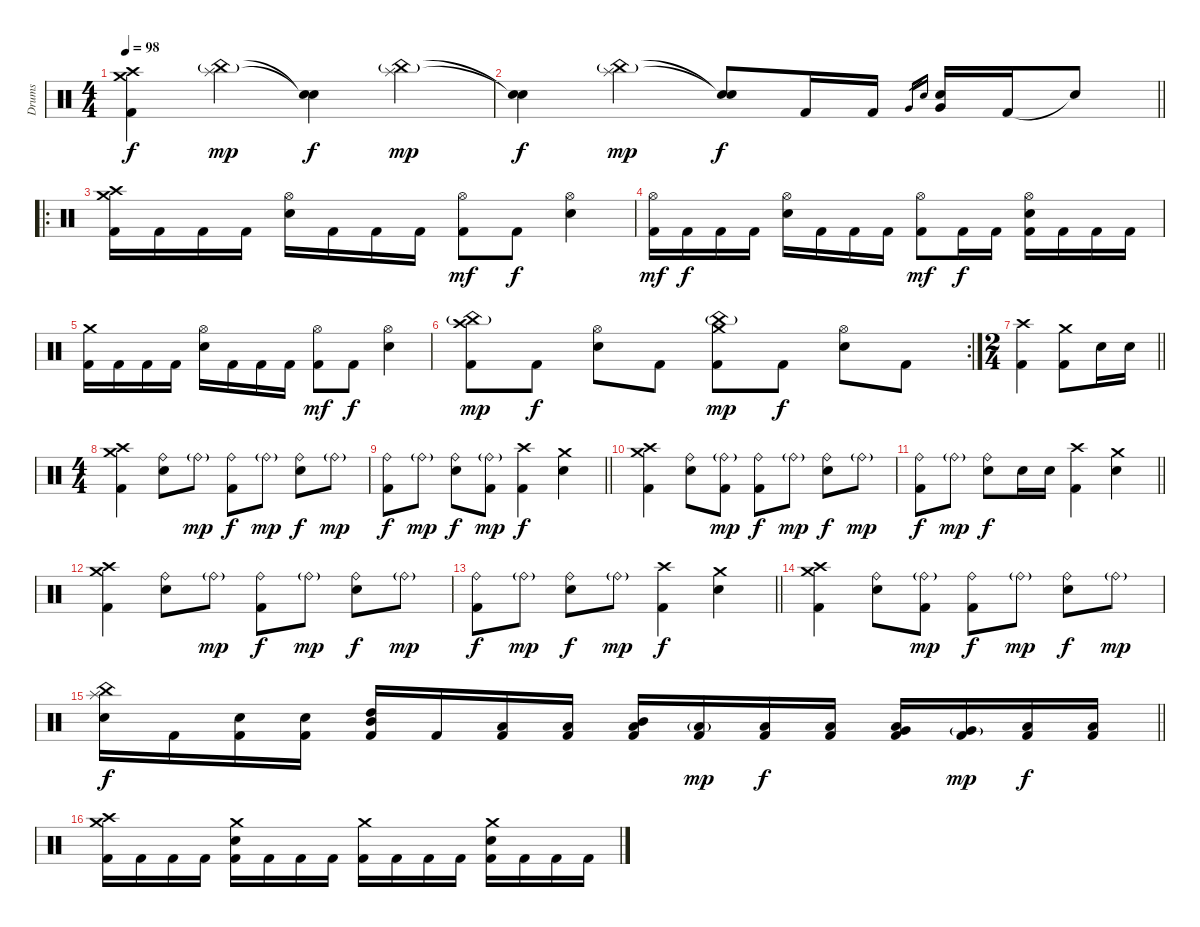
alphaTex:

\track ("Drums" "Drums") {instrument percussion}
\staff {score}
\articulation defaults
\ts (4 4)
\tempo 98
\clef neutral
\ks c
("Crash high (hit)" "Crash medium (hit)" "Kick (hit) 2").4{dy f} ("China (hit)"{g} "Splash (hit)").4{dy mp} ("Snare (hit)"{t} "Snare (hit)"{t}).4{dy f} ("China (hit)"{g} "Splash (hit)").4{dy mp} |
\barLineRight lightlight
("Snare (hit)"{t} "Snare (hit)"{t}).4{dy f} ("China (hit)"{g} "Splash (hit)").4{dy mp} ("Snare (hit)"{t} "Snare (hit)"{t}).8{dy f} "Kick (hit) 2".16 "Kick (hit) 2".16 "Very Low Tom (hit)".16{gr} "Electric Snare (hit)".16{gr} ("Very Low Tom (hit)" "Electric Snare (hit)").16 "Kick (hit) 2".16 "Snare (hit)"{t}.8 |
\ro
("Crash high (hit)" "Crash medium (hit)" "Kick (hit) 2").16 "Kick (hit) 2".16 "Kick (hit) 2".16 "Kick (hit) 2".16 ("Hi-Hat (open)" "Electric Snare (hit)").16 "Kick (hit) 2".16 "Kick (hit) 2".16 "Kick (hit) 2".16 ("Hi-Hat (open)" "Kick (hit) 2").8{dy mf} "Kick (hit) 2".8{dy f} ("Hi-Hat (open)" "Electric Snare (hit)").4 |
("Hi-Hat (open)" "Kick (hit) 2").16{dy mf} "Kick (hit) 2".16{dy f} "Kick (hit) 2".16 "Kick (hit) 2".16 ("Hi-Hat (open)" "Electric Snare (hit)").16 "Kick (hit) 2".16 "Kick (hit) 2".16 "Kick (hit) 2".16 ("Hi-Hat (open)" "Kick (hit) 2").8{dy mf} "Kick (hit) 2".16{dy f} "Kick (hit) 2".16 ("Hi-Hat (open)" "Electric Snare (hit)" "Kick (hit) 2").16 "Kick (hit) 2".16 "Kick (hit) 2".16 "Kick (hit) 2".16 |
("Crash medium (hit)" "Kick (hit) 2").16 "Kick (hit) 2".16 "Kick (hit) 2".16 "Kick (hit) 2".16 ("Hi-Hat (open)" "Electric Snare (hit)").16 "Kick (hit) 2".16 "Kick (hit) 2".16 "Kick (hit) 2".16 ("Hi-Hat (open)" "Kick (hit) 2").8{dy mf} "Kick (hit) 2".8{dy f} ("Hi-Hat (open)" "Electric Snare (hit)").4 |
\rc 2
("Crash high (hit)" "China (hit)"{g} "Kick (hit) 2").8{dy mp} "Kick (hit) 2".8{dy f} ("Hi-Hat (open)" "Electric Snare (hit)").8 "Kick (hit) 2".8 ("Crash medium (hit)" "China (hit)"{g} "Kick (hit) 2").8{dy mp} "Kick (hit) 2".8{dy f} ("Hi-Hat (open)" "Electric Snare (hit)").8 "Kick (hit) 2".8 |
\ts (2 4)
\barLineRight lightlight
("Crash high (hit)" "Kick (hit) 2").4 ("Crash medium (hit)" "Kick (hit) 2").8 "Electric Snare (hit)".16 "Electric Snare (hit)".16 |
\ts (4 4)
("Crash high (hit)" "Crash medium (hit)" "Kick (hit) 2").4 ("Ride (bell)" "Electric Snare (hit)").8 "Ride (bell)"{g}.8{dy mp} ("Ride (bell)" "Kick (hit) 2").8{dy f} "Ride (bell)"{g}.8{dy mp} ("Ride (bell)" "Electric Snare (hit)").8{dy f} "Ride (bell)"{g}.8{dy mp} |
\barLineRight lightlight
("Ride (bell)" "Kick (hit) 2").8{dy f} "Ride (bell)"{g}.8{dy mp} ("Ride (bell)" "Electric Snare (hit)").8{dy f} ("Ride (bell)"{g} "Kick (hit) 2").8{dy mp} ("Crash high (hit)" "Kick (hit) 2").4{dy f} ("Crash medium (hit)" "Electric Snare (hit)").4 |
("Crash high (hit)" "Crash medium (hit)" "Kick (hit) 2").4 ("Ride (bell)" "Electric Snare (hit)").8 ("Ride (bell)"{g} "Kick (hit) 2").8{dy mp} ("Ride (bell)" "Kick (hit) 2").8{dy f} "Ride (bell)"{g}.8{dy mp} ("Ride (bell)" "Electric Snare (hit)").8{dy f} "Ride (bell)"{g}.8{dy mp} |
\barLineRight lightlight
("Ride (bell)" "Kick (hit) 2").8{dy f} "Ride (bell)"{g}.8{dy mp} ("Ride (bell)" "Electric Snare (hit)").8{dy f} "Electric Snare (hit)".16 "Electric Snare (hit)".16 ("Crash high (hit)" "Kick (hit) 2").4 ("Crash medium (hit)" "Electric Snare (hit)").4 |
("Crash high (hit)" "Crash medium (hit)" "Kick (hit) 2").4 ("Ride (bell)" "Electric Snare (hit)").8 "Ride (bell)"{g}.8{dy mp} ("Ride (bell)" "Kick (hit) 2").8{dy f} "Ride (bell)"{g}.8{dy mp} ("Ride (bell)" "Electric Snare (hit)").8{dy f} "Ride (bell)"{g}.8{dy mp} |
\barLineRight lightlight
("Ride (bell)" "Kick (hit) 2").8{dy f} "Ride (bell)"{g}.8{dy mp} ("Ride (bell)" "Electric Snare (hit)").8{dy f} "Ride (bell)"{g}.8{dy mp} ("Crash high (hit)" "Kick (hit) 2").4{dy f} ("Crash medium (hit)" "Electric Snare (hit)").4 |
("Crash high (hit)" "Crash medium (hit)" "Kick (hit) 2").4 ("Ride (bell)" "Electric Snare (hit)").8 ("Ride (bell)"{g} "Kick (hit) 2").8{dy mp} ("Ride (bell)" "Kick (hit) 2").8{dy f} "Ride (bell)"{g}.8{dy mp} ("Ride (bell)" "Electric Snare (hit)").8{dy f} "Ride (bell)"{g}.8{dy mp} |
\barLineRight lightlight
("China (hit)" "Splash (hit)" "Electric Snare (hit)").16{dy f} "Kick (hit) 2".16 ("Electric Snare (hit)" "Kick (hit) 2").16 ("Electric Snare (hit)" "Kick (hit) 2").16 ("High Tom (hit)" "Mid Tom (hit)" "Kick (hit) 2").16 "Kick (hit) 2".16 ("Low Tom (hit)" "Kick (hit) 2").16 ("Low Tom (hit)" "Kick (hit) 2").16 ("Mid Tom (hit)" "Low Tom (hit)" "Kick (hit) 2").16 ("Low Tom (hit)"{g} "Kick (hit) 2").16{dy mp} ("Low Tom (hit)" "Kick (hit) 2").16{dy f} ("Low Tom (hit)" "Kick (hit) 2").16 ("Low Tom (hit)" "Very Low Tom (hit)" "Kick (hit) 2").16 ("Very Low Tom (hit)"{g} "Kick (hit) 2").16{dy mp} ("Low Floor Tom (hit)" "Kick (hit) 2").16{dy f} ("Low Floor Tom (hit)" "Kick (hit) 2").16 |
("Crash medium (hit)" "Crash high (hit)" "Kick (hit) 2").16 "Kick (hit) 2".16 "Kick (hit) 2".16 "Kick (hit) 2".16 ("Crash medium (hit)" "Electric Snare (hit)" "Kick (hit) 2").16 "Kick (hit) 2".16 "Kick (hit) 2".16 "Kick (hit) 2".16 ("Crash medium (hit)" "Kick (hit) 2").16 "Kick (hit) 2".16 "Kick (hit) 2".16 "Kick (hit) 2".16 ("Crash medium (hit)" "Electric Snare (hit)" "Kick (hit) 2").16 "Kick (hit) 2".16 "Kick (hit) 2".16 "Kick (hit) 2".16
